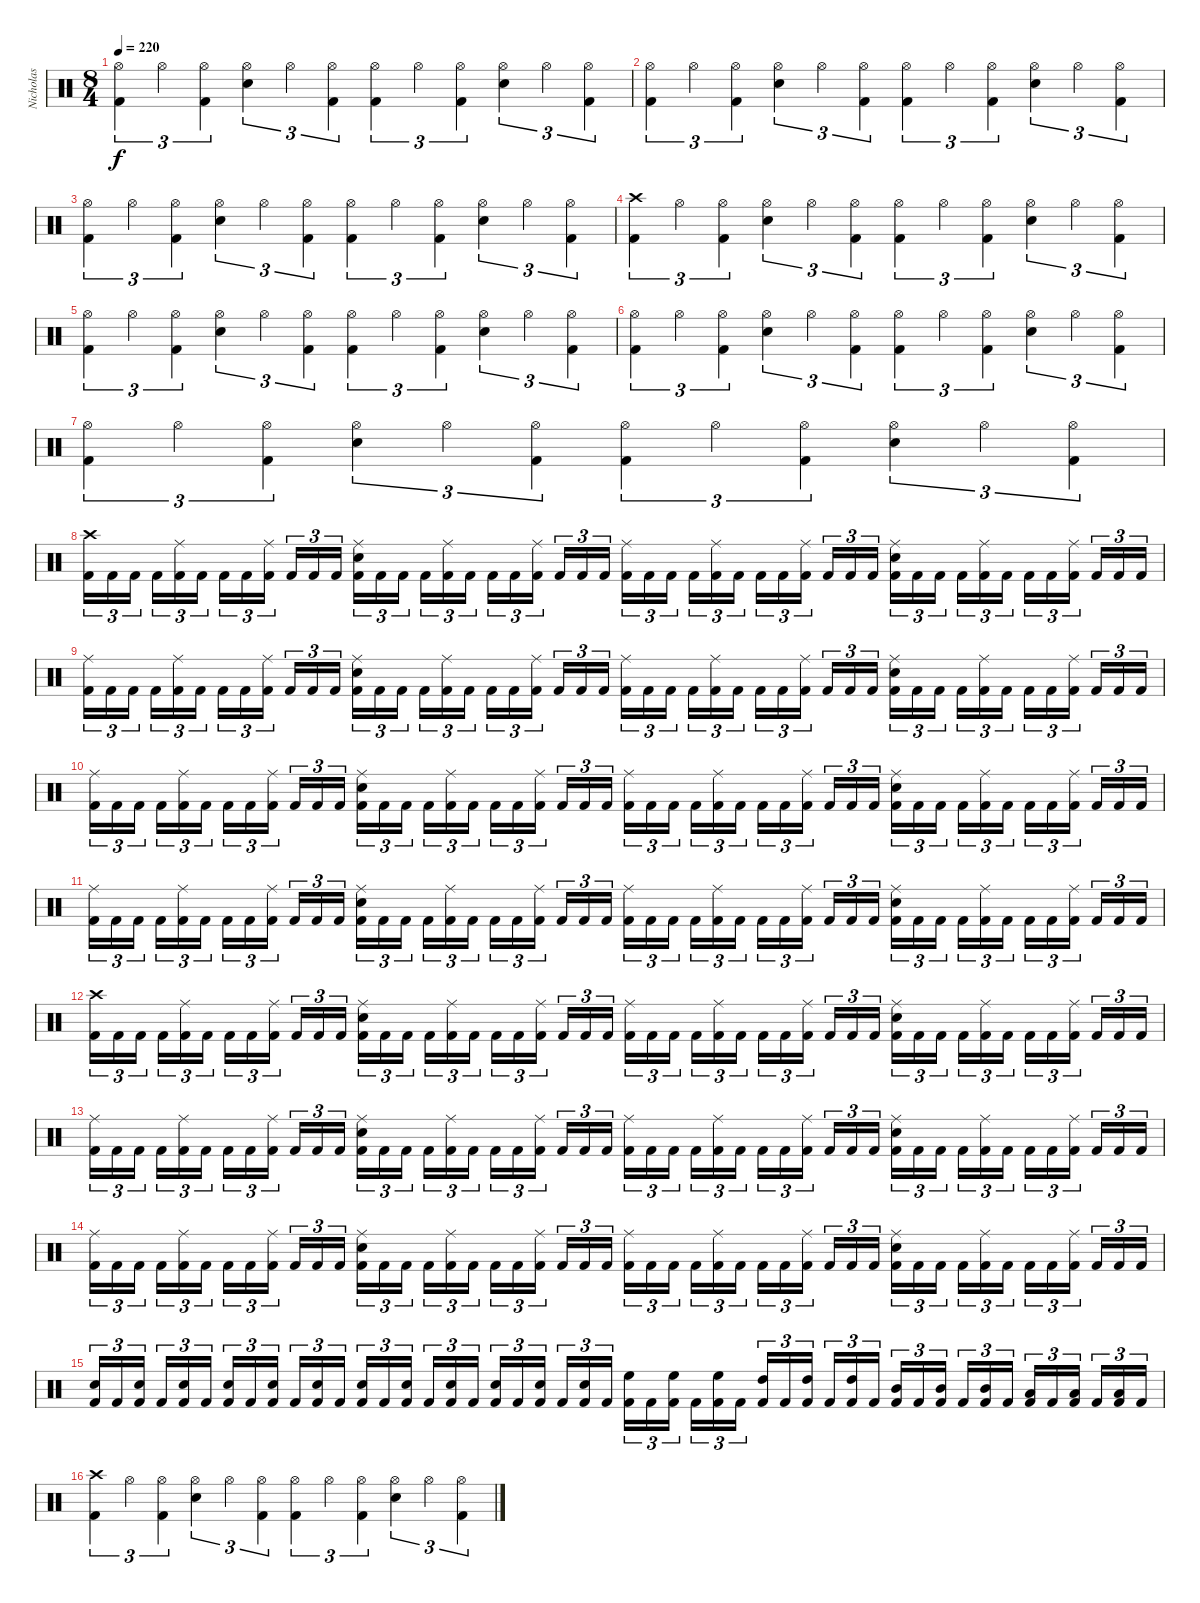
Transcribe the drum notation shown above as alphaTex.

\track ("Nicholas" "Nicholas") {instrument percussion}
\staff {score}
\articulation defaults
\ts (8 4)
\tempo 220
\clef neutral
\ks c
("Kick (hit) 2" "Hi-Hat (open)").4{tu (3 2) dy f} "Hi-Hat (open)".4{tu (3 2)} ("Kick (hit) 2" "Hi-Hat (open)").4{tu (3 2)} ("Snare (hit) 2" "Hi-Hat (open)").4{tu (3 2)} "Hi-Hat (open)".4{tu (3 2)} ("Kick (hit) 2" "Hi-Hat (open)").4{tu (3 2)} ("Kick (hit) 2" "Hi-Hat (open)").4{tu (3 2)} "Hi-Hat (open)".4{tu (3 2)} ("Kick (hit) 2" "Hi-Hat (open)").4{tu (3 2)} ("Snare (hit) 2" "Hi-Hat (open)").4{tu (3 2)} "Hi-Hat (open)".4{tu (3 2)} ("Kick (hit) 2" "Hi-Hat (open)").4{tu (3 2)} |
("Kick (hit) 2" "Hi-Hat (open)").4{tu (3 2)} "Hi-Hat (open)".4{tu (3 2)} ("Kick (hit) 2" "Hi-Hat (open)").4{tu (3 2)} ("Snare (hit) 2" "Hi-Hat (open)").4{tu (3 2)} "Hi-Hat (open)".4{tu (3 2)} ("Kick (hit) 2" "Hi-Hat (open)").4{tu (3 2)} ("Kick (hit) 2" "Hi-Hat (open)").4{tu (3 2)} "Hi-Hat (open)".4{tu (3 2)} ("Kick (hit) 2" "Hi-Hat (open)").4{tu (3 2)} ("Snare (hit) 2" "Hi-Hat (open)").4{tu (3 2)} "Hi-Hat (open)".4{tu (3 2)} ("Kick (hit) 2" "Hi-Hat (open)").4{tu (3 2)} |
("Kick (hit) 2" "Hi-Hat (open)").4{tu (3 2)} "Hi-Hat (open)".4{tu (3 2)} ("Kick (hit) 2" "Hi-Hat (open)").4{tu (3 2)} ("Snare (hit) 2" "Hi-Hat (open)").4{tu (3 2)} "Hi-Hat (open)".4{tu (3 2)} ("Kick (hit) 2" "Hi-Hat (open)").4{tu (3 2)} ("Kick (hit) 2" "Hi-Hat (open)").4{tu (3 2)} "Hi-Hat (open)".4{tu (3 2)} ("Kick (hit) 2" "Hi-Hat (open)").4{tu (3 2)} ("Snare (hit) 2" "Hi-Hat (open)").4{tu (3 2)} "Hi-Hat (open)".4{tu (3 2)} ("Kick (hit) 2" "Hi-Hat (open)").4{tu (3 2)} |
("Kick (hit) 2" "Crash high (hit)").4{tu (3 2)} "Hi-Hat (open)".4{tu (3 2)} ("Kick (hit) 2" "Hi-Hat (open)").4{tu (3 2)} ("Snare (hit) 2" "Hi-Hat (open)").4{tu (3 2)} "Hi-Hat (open)".4{tu (3 2)} ("Kick (hit) 2" "Hi-Hat (open)").4{tu (3 2)} ("Kick (hit) 2" "Hi-Hat (open)").4{tu (3 2)} "Hi-Hat (open)".4{tu (3 2)} ("Kick (hit) 2" "Hi-Hat (open)").4{tu (3 2)} ("Snare (hit) 2" "Hi-Hat (open)").4{tu (3 2)} "Hi-Hat (open)".4{tu (3 2)} ("Kick (hit) 2" "Hi-Hat (open)").4{tu (3 2)} |
("Kick (hit) 2" "Hi-Hat (open)").4{tu (3 2)} "Hi-Hat (open)".4{tu (3 2)} ("Kick (hit) 2" "Hi-Hat (open)").4{tu (3 2)} ("Snare (hit) 2" "Hi-Hat (open)").4{tu (3 2)} "Hi-Hat (open)".4{tu (3 2)} ("Kick (hit) 2" "Hi-Hat (open)").4{tu (3 2)} ("Kick (hit) 2" "Hi-Hat (open)").4{tu (3 2)} "Hi-Hat (open)".4{tu (3 2)} ("Kick (hit) 2" "Hi-Hat (open)").4{tu (3 2)} ("Snare (hit) 2" "Hi-Hat (open)").4{tu (3 2)} "Hi-Hat (open)".4{tu (3 2)} ("Kick (hit) 2" "Hi-Hat (open)").4{tu (3 2)} |
("Kick (hit) 2" "Hi-Hat (open)").4{tu (3 2)} "Hi-Hat (open)".4{tu (3 2)} ("Kick (hit) 2" "Hi-Hat (open)").4{tu (3 2)} ("Snare (hit) 2" "Hi-Hat (open)").4{tu (3 2)} "Hi-Hat (open)".4{tu (3 2)} ("Kick (hit) 2" "Hi-Hat (open)").4{tu (3 2)} ("Kick (hit) 2" "Hi-Hat (open)").4{tu (3 2)} "Hi-Hat (open)".4{tu (3 2)} ("Kick (hit) 2" "Hi-Hat (open)").4{tu (3 2)} ("Snare (hit) 2" "Hi-Hat (open)").4{tu (3 2)} "Hi-Hat (open)".4{tu (3 2)} ("Kick (hit) 2" "Hi-Hat (open)").4{tu (3 2)} |
("Kick (hit) 2" "Hi-Hat (open)").4{tu (3 2)} "Hi-Hat (open)".4{tu (3 2)} ("Kick (hit) 2" "Hi-Hat (open)").4{tu (3 2)} ("Snare (hit) 2" "Hi-Hat (open)").4{tu (3 2)} "Hi-Hat (open)".4{tu (3 2)} ("Kick (hit) 2" "Hi-Hat (open)").4{tu (3 2)} ("Kick (hit) 2" "Hi-Hat (open)").4{tu (3 2)} "Hi-Hat (open)".4{tu (3 2)} ("Kick (hit) 2" "Hi-Hat (open)").4{tu (3 2)} ("Snare (hit) 2" "Hi-Hat (open)").4{tu (3 2)} "Hi-Hat (open)".4{tu (3 2)} ("Kick (hit) 2" "Hi-Hat (open)").4{tu (3 2)} |
("Kick (hit) 2" "Crash high (hit)").16{tu (3 2)} "Kick (hit) 2".16{tu (3 2)} "Kick (hit) 2".16{tu (3 2)} "Kick (hit) 2".16{tu (3 2)} ("Kick (hit) 2" "Ride (middle)").16{tu (3 2)} "Kick (hit) 2".16{tu (3 2)} "Kick (hit) 2".16{tu (3 2)} "Kick (hit) 2".16{tu (3 2)} ("Kick (hit) 2" "Ride (middle)").16{tu (3 2)} "Kick (hit) 2".16{tu (3 2)} "Kick (hit) 2".16{tu (3 2)} "Kick (hit) 2".16{tu (3 2)} ("Kick (hit) 2" "Snare (hit) 2" "Ride (middle)").16{tu (3 2)} "Kick (hit) 2".16{tu (3 2)} "Kick (hit) 2".16{tu (3 2)} "Kick (hit) 2".16{tu (3 2)} ("Kick (hit) 2" "Ride (middle)").16{tu (3 2)} "Kick (hit) 2".16{tu (3 2)} "Kick (hit) 2".16{tu (3 2)} "Kick (hit) 2".16{tu (3 2)} ("Kick (hit) 2" "Ride (middle)").16{tu (3 2)} "Kick (hit) 2".16{tu (3 2)} "Kick (hit) 2".16{tu (3 2)} "Kick (hit) 2".16{tu (3 2)} ("Kick (hit) 2" "Ride (middle)").16{tu (3 2)} "Kick (hit) 2".16{tu (3 2)} "Kick (hit) 2".16{tu (3 2)} "Kick (hit) 2".16{tu (3 2)} ("Kick (hit) 2" "Ride (middle)").16{tu (3 2)} "Kick (hit) 2".16{tu (3 2)} "Kick (hit) 2".16{tu (3 2)} "Kick (hit) 2".16{tu (3 2)} ("Kick (hit) 2" "Ride (middle)").16{tu (3 2)} "Kick (hit) 2".16{tu (3 2)} "Kick (hit) 2".16{tu (3 2)} "Kick (hit) 2".16{tu (3 2)} ("Kick (hit) 2" "Snare (hit) 2" "Ride (middle)").16{tu (3 2)} "Kick (hit) 2".16{tu (3 2)} "Kick (hit) 2".16{tu (3 2)} "Kick (hit) 2".16{tu (3 2)} ("Kick (hit) 2" "Ride (middle)").16{tu (3 2)} "Kick (hit) 2".16{tu (3 2)} "Kick (hit) 2".16{tu (3 2)} "Kick (hit) 2".16{tu (3 2)} ("Kick (hit) 2" "Ride (middle)").16{tu (3 2)} "Kick (hit) 2".16{tu (3 2)} "Kick (hit) 2".16{tu (3 2)} "Kick (hit) 2".16{tu (3 2)} |
("Kick (hit) 2" "Ride (middle)").16{tu (3 2)} "Kick (hit) 2".16{tu (3 2)} "Kick (hit) 2".16{tu (3 2)} "Kick (hit) 2".16{tu (3 2)} ("Kick (hit) 2" "Ride (middle)").16{tu (3 2)} "Kick (hit) 2".16{tu (3 2)} "Kick (hit) 2".16{tu (3 2)} "Kick (hit) 2".16{tu (3 2)} ("Kick (hit) 2" "Ride (middle)").16{tu (3 2)} "Kick (hit) 2".16{tu (3 2)} "Kick (hit) 2".16{tu (3 2)} "Kick (hit) 2".16{tu (3 2)} ("Kick (hit) 2" "Snare (hit) 2" "Ride (middle)").16{tu (3 2)} "Kick (hit) 2".16{tu (3 2)} "Kick (hit) 2".16{tu (3 2)} "Kick (hit) 2".16{tu (3 2)} ("Kick (hit) 2" "Ride (middle)").16{tu (3 2)} "Kick (hit) 2".16{tu (3 2)} "Kick (hit) 2".16{tu (3 2)} "Kick (hit) 2".16{tu (3 2)} ("Kick (hit) 2" "Ride (middle)").16{tu (3 2)} "Kick (hit) 2".16{tu (3 2)} "Kick (hit) 2".16{tu (3 2)} "Kick (hit) 2".16{tu (3 2)} ("Kick (hit) 2" "Ride (middle)").16{tu (3 2)} "Kick (hit) 2".16{tu (3 2)} "Kick (hit) 2".16{tu (3 2)} "Kick (hit) 2".16{tu (3 2)} ("Kick (hit) 2" "Ride (middle)").16{tu (3 2)} "Kick (hit) 2".16{tu (3 2)} "Kick (hit) 2".16{tu (3 2)} "Kick (hit) 2".16{tu (3 2)} ("Kick (hit) 2" "Ride (middle)").16{tu (3 2)} "Kick (hit) 2".16{tu (3 2)} "Kick (hit) 2".16{tu (3 2)} "Kick (hit) 2".16{tu (3 2)} ("Kick (hit) 2" "Snare (hit) 2" "Ride (middle)").16{tu (3 2)} "Kick (hit) 2".16{tu (3 2)} "Kick (hit) 2".16{tu (3 2)} "Kick (hit) 2".16{tu (3 2)} ("Kick (hit) 2" "Ride (middle)").16{tu (3 2)} "Kick (hit) 2".16{tu (3 2)} "Kick (hit) 2".16{tu (3 2)} "Kick (hit) 2".16{tu (3 2)} ("Kick (hit) 2" "Ride (middle)").16{tu (3 2)} "Kick (hit) 2".16{tu (3 2)} "Kick (hit) 2".16{tu (3 2)} "Kick (hit) 2".16{tu (3 2)} |
("Kick (hit) 2" "Ride (middle)").16{tu (3 2)} "Kick (hit) 2".16{tu (3 2)} "Kick (hit) 2".16{tu (3 2)} "Kick (hit) 2".16{tu (3 2)} ("Kick (hit) 2" "Ride (middle)").16{tu (3 2)} "Kick (hit) 2".16{tu (3 2)} "Kick (hit) 2".16{tu (3 2)} "Kick (hit) 2".16{tu (3 2)} ("Kick (hit) 2" "Ride (middle)").16{tu (3 2)} "Kick (hit) 2".16{tu (3 2)} "Kick (hit) 2".16{tu (3 2)} "Kick (hit) 2".16{tu (3 2)} ("Kick (hit) 2" "Snare (hit) 2" "Ride (middle)").16{tu (3 2)} "Kick (hit) 2".16{tu (3 2)} "Kick (hit) 2".16{tu (3 2)} "Kick (hit) 2".16{tu (3 2)} ("Kick (hit) 2" "Ride (middle)").16{tu (3 2)} "Kick (hit) 2".16{tu (3 2)} "Kick (hit) 2".16{tu (3 2)} "Kick (hit) 2".16{tu (3 2)} ("Kick (hit) 2" "Ride (middle)").16{tu (3 2)} "Kick (hit) 2".16{tu (3 2)} "Kick (hit) 2".16{tu (3 2)} "Kick (hit) 2".16{tu (3 2)} ("Kick (hit) 2" "Ride (middle)").16{tu (3 2)} "Kick (hit) 2".16{tu (3 2)} "Kick (hit) 2".16{tu (3 2)} "Kick (hit) 2".16{tu (3 2)} ("Kick (hit) 2" "Ride (middle)").16{tu (3 2)} "Kick (hit) 2".16{tu (3 2)} "Kick (hit) 2".16{tu (3 2)} "Kick (hit) 2".16{tu (3 2)} ("Kick (hit) 2" "Ride (middle)").16{tu (3 2)} "Kick (hit) 2".16{tu (3 2)} "Kick (hit) 2".16{tu (3 2)} "Kick (hit) 2".16{tu (3 2)} ("Kick (hit) 2" "Snare (hit) 2" "Ride (middle)").16{tu (3 2)} "Kick (hit) 2".16{tu (3 2)} "Kick (hit) 2".16{tu (3 2)} "Kick (hit) 2".16{tu (3 2)} ("Kick (hit) 2" "Ride (middle)").16{tu (3 2)} "Kick (hit) 2".16{tu (3 2)} "Kick (hit) 2".16{tu (3 2)} "Kick (hit) 2".16{tu (3 2)} ("Kick (hit) 2" "Ride (middle)").16{tu (3 2)} "Kick (hit) 2".16{tu (3 2)} "Kick (hit) 2".16{tu (3 2)} "Kick (hit) 2".16{tu (3 2)} |
("Kick (hit) 2" "Ride (middle)").16{tu (3 2)} "Kick (hit) 2".16{tu (3 2)} "Kick (hit) 2".16{tu (3 2)} "Kick (hit) 2".16{tu (3 2)} ("Kick (hit) 2" "Ride (middle)").16{tu (3 2)} "Kick (hit) 2".16{tu (3 2)} "Kick (hit) 2".16{tu (3 2)} "Kick (hit) 2".16{tu (3 2)} ("Kick (hit) 2" "Ride (middle)").16{tu (3 2)} "Kick (hit) 2".16{tu (3 2)} "Kick (hit) 2".16{tu (3 2)} "Kick (hit) 2".16{tu (3 2)} ("Kick (hit) 2" "Snare (hit) 2" "Ride (middle)").16{tu (3 2)} "Kick (hit) 2".16{tu (3 2)} "Kick (hit) 2".16{tu (3 2)} "Kick (hit) 2".16{tu (3 2)} ("Kick (hit) 2" "Ride (middle)").16{tu (3 2)} "Kick (hit) 2".16{tu (3 2)} "Kick (hit) 2".16{tu (3 2)} "Kick (hit) 2".16{tu (3 2)} ("Kick (hit) 2" "Ride (middle)").16{tu (3 2)} "Kick (hit) 2".16{tu (3 2)} "Kick (hit) 2".16{tu (3 2)} "Kick (hit) 2".16{tu (3 2)} ("Kick (hit) 2" "Ride (middle)").16{tu (3 2)} "Kick (hit) 2".16{tu (3 2)} "Kick (hit) 2".16{tu (3 2)} "Kick (hit) 2".16{tu (3 2)} ("Kick (hit) 2" "Ride (middle)").16{tu (3 2)} "Kick (hit) 2".16{tu (3 2)} "Kick (hit) 2".16{tu (3 2)} "Kick (hit) 2".16{tu (3 2)} ("Kick (hit) 2" "Ride (middle)").16{tu (3 2)} "Kick (hit) 2".16{tu (3 2)} "Kick (hit) 2".16{tu (3 2)} "Kick (hit) 2".16{tu (3 2)} ("Kick (hit) 2" "Snare (hit) 2" "Ride (middle)").16{tu (3 2)} "Kick (hit) 2".16{tu (3 2)} "Kick (hit) 2".16{tu (3 2)} "Kick (hit) 2".16{tu (3 2)} ("Kick (hit) 2" "Ride (middle)").16{tu (3 2)} "Kick (hit) 2".16{tu (3 2)} "Kick (hit) 2".16{tu (3 2)} "Kick (hit) 2".16{tu (3 2)} ("Kick (hit) 2" "Ride (middle)").16{tu (3 2)} "Kick (hit) 2".16{tu (3 2)} "Kick (hit) 2".16{tu (3 2)} "Kick (hit) 2".16{tu (3 2)} |
("Kick (hit) 2" "Crash high (hit)").16{tu (3 2)} "Kick (hit) 2".16{tu (3 2)} "Kick (hit) 2".16{tu (3 2)} "Kick (hit) 2".16{tu (3 2)} ("Kick (hit) 2" "Ride (middle)").16{tu (3 2)} "Kick (hit) 2".16{tu (3 2)} "Kick (hit) 2".16{tu (3 2)} "Kick (hit) 2".16{tu (3 2)} ("Kick (hit) 2" "Ride (middle)").16{tu (3 2)} "Kick (hit) 2".16{tu (3 2)} "Kick (hit) 2".16{tu (3 2)} "Kick (hit) 2".16{tu (3 2)} ("Kick (hit) 2" "Snare (hit) 2" "Ride (middle)").16{tu (3 2)} "Kick (hit) 2".16{tu (3 2)} "Kick (hit) 2".16{tu (3 2)} "Kick (hit) 2".16{tu (3 2)} ("Kick (hit) 2" "Ride (middle)").16{tu (3 2)} "Kick (hit) 2".16{tu (3 2)} "Kick (hit) 2".16{tu (3 2)} "Kick (hit) 2".16{tu (3 2)} ("Kick (hit) 2" "Ride (middle)").16{tu (3 2)} "Kick (hit) 2".16{tu (3 2)} "Kick (hit) 2".16{tu (3 2)} "Kick (hit) 2".16{tu (3 2)} ("Kick (hit) 2" "Ride (middle)").16{tu (3 2)} "Kick (hit) 2".16{tu (3 2)} "Kick (hit) 2".16{tu (3 2)} "Kick (hit) 2".16{tu (3 2)} ("Kick (hit) 2" "Ride (middle)").16{tu (3 2)} "Kick (hit) 2".16{tu (3 2)} "Kick (hit) 2".16{tu (3 2)} "Kick (hit) 2".16{tu (3 2)} ("Kick (hit) 2" "Ride (middle)").16{tu (3 2)} "Kick (hit) 2".16{tu (3 2)} "Kick (hit) 2".16{tu (3 2)} "Kick (hit) 2".16{tu (3 2)} ("Kick (hit) 2" "Snare (hit) 2" "Ride (middle)").16{tu (3 2)} "Kick (hit) 2".16{tu (3 2)} "Kick (hit) 2".16{tu (3 2)} "Kick (hit) 2".16{tu (3 2)} ("Kick (hit) 2" "Ride (middle)").16{tu (3 2)} "Kick (hit) 2".16{tu (3 2)} "Kick (hit) 2".16{tu (3 2)} "Kick (hit) 2".16{tu (3 2)} ("Kick (hit) 2" "Ride (middle)").16{tu (3 2)} "Kick (hit) 2".16{tu (3 2)} "Kick (hit) 2".16{tu (3 2)} "Kick (hit) 2".16{tu (3 2)} |
("Kick (hit) 2" "Ride (middle)").16{tu (3 2)} "Kick (hit) 2".16{tu (3 2)} "Kick (hit) 2".16{tu (3 2)} "Kick (hit) 2".16{tu (3 2)} ("Kick (hit) 2" "Ride (middle)").16{tu (3 2)} "Kick (hit) 2".16{tu (3 2)} "Kick (hit) 2".16{tu (3 2)} "Kick (hit) 2".16{tu (3 2)} ("Kick (hit) 2" "Ride (middle)").16{tu (3 2)} "Kick (hit) 2".16{tu (3 2)} "Kick (hit) 2".16{tu (3 2)} "Kick (hit) 2".16{tu (3 2)} ("Kick (hit) 2" "Snare (hit) 2" "Ride (middle)").16{tu (3 2)} "Kick (hit) 2".16{tu (3 2)} "Kick (hit) 2".16{tu (3 2)} "Kick (hit) 2".16{tu (3 2)} ("Kick (hit) 2" "Ride (middle)").16{tu (3 2)} "Kick (hit) 2".16{tu (3 2)} "Kick (hit) 2".16{tu (3 2)} "Kick (hit) 2".16{tu (3 2)} ("Kick (hit) 2" "Ride (middle)").16{tu (3 2)} "Kick (hit) 2".16{tu (3 2)} "Kick (hit) 2".16{tu (3 2)} "Kick (hit) 2".16{tu (3 2)} ("Kick (hit) 2" "Ride (middle)").16{tu (3 2)} "Kick (hit) 2".16{tu (3 2)} "Kick (hit) 2".16{tu (3 2)} "Kick (hit) 2".16{tu (3 2)} ("Kick (hit) 2" "Ride (middle)").16{tu (3 2)} "Kick (hit) 2".16{tu (3 2)} "Kick (hit) 2".16{tu (3 2)} "Kick (hit) 2".16{tu (3 2)} ("Kick (hit) 2" "Ride (middle)").16{tu (3 2)} "Kick (hit) 2".16{tu (3 2)} "Kick (hit) 2".16{tu (3 2)} "Kick (hit) 2".16{tu (3 2)} ("Kick (hit) 2" "Snare (hit) 2" "Ride (middle)").16{tu (3 2)} "Kick (hit) 2".16{tu (3 2)} "Kick (hit) 2".16{tu (3 2)} "Kick (hit) 2".16{tu (3 2)} ("Kick (hit) 2" "Ride (middle)").16{tu (3 2)} "Kick (hit) 2".16{tu (3 2)} "Kick (hit) 2".16{tu (3 2)} "Kick (hit) 2".16{tu (3 2)} ("Kick (hit) 2" "Ride (middle)").16{tu (3 2)} "Kick (hit) 2".16{tu (3 2)} "Kick (hit) 2".16{tu (3 2)} "Kick (hit) 2".16{tu (3 2)} |
("Kick (hit) 2" "Ride (middle)").16{tu (3 2)} "Kick (hit) 2".16{tu (3 2)} "Kick (hit) 2".16{tu (3 2)} "Kick (hit) 2".16{tu (3 2)} ("Kick (hit) 2" "Ride (middle)").16{tu (3 2)} "Kick (hit) 2".16{tu (3 2)} "Kick (hit) 2".16{tu (3 2)} "Kick (hit) 2".16{tu (3 2)} ("Kick (hit) 2" "Ride (middle)").16{tu (3 2)} "Kick (hit) 2".16{tu (3 2)} "Kick (hit) 2".16{tu (3 2)} "Kick (hit) 2".16{tu (3 2)} ("Kick (hit) 2" "Snare (hit) 2" "Ride (middle)").16{tu (3 2)} "Kick (hit) 2".16{tu (3 2)} "Kick (hit) 2".16{tu (3 2)} "Kick (hit) 2".16{tu (3 2)} ("Kick (hit) 2" "Ride (middle)").16{tu (3 2)} "Kick (hit) 2".16{tu (3 2)} "Kick (hit) 2".16{tu (3 2)} "Kick (hit) 2".16{tu (3 2)} ("Kick (hit) 2" "Ride (middle)").16{tu (3 2)} "Kick (hit) 2".16{tu (3 2)} "Kick (hit) 2".16{tu (3 2)} "Kick (hit) 2".16{tu (3 2)} ("Kick (hit) 2" "Ride (middle)").16{tu (3 2)} "Kick (hit) 2".16{tu (3 2)} "Kick (hit) 2".16{tu (3 2)} "Kick (hit) 2".16{tu (3 2)} ("Kick (hit) 2" "Ride (middle)").16{tu (3 2)} "Kick (hit) 2".16{tu (3 2)} "Kick (hit) 2".16{tu (3 2)} "Kick (hit) 2".16{tu (3 2)} ("Kick (hit) 2" "Ride (middle)").16{tu (3 2)} "Kick (hit) 2".16{tu (3 2)} "Kick (hit) 2".16{tu (3 2)} "Kick (hit) 2".16{tu (3 2)} ("Kick (hit) 2" "Snare (hit) 2" "Ride (middle)").16{tu (3 2)} "Kick (hit) 2".16{tu (3 2)} "Kick (hit) 2".16{tu (3 2)} "Kick (hit) 2".16{tu (3 2)} ("Kick (hit) 2" "Ride (middle)").16{tu (3 2)} "Kick (hit) 2".16{tu (3 2)} "Kick (hit) 2".16{tu (3 2)} "Kick (hit) 2".16{tu (3 2)} ("Kick (hit) 2" "Ride (middle)").16{tu (3 2)} "Kick (hit) 2".16{tu (3 2)} "Kick (hit) 2".16{tu (3 2)} "Kick (hit) 2".16{tu (3 2)} |
("Kick (hit) 2" "Snare (hit) 2").16{tu (3 2)} "Kick (hit) 2".16{tu (3 2)} ("Kick (hit) 2" "Snare (hit) 2").16{tu (3 2)} "Kick (hit) 2".16{tu (3 2)} ("Kick (hit) 2" "Snare (hit) 2").16{tu (3 2)} "Kick (hit) 2".16{tu (3 2)} ("Kick (hit) 2" "Snare (hit) 2").16{tu (3 2)} "Kick (hit) 2".16{tu (3 2)} ("Kick (hit) 2" "Snare (hit) 2").16{tu (3 2)} "Kick (hit) 2".16{tu (3 2)} ("Kick (hit) 2" "Snare (hit) 2").16{tu (3 2)} "Kick (hit) 2".16{tu (3 2)} ("Kick (hit) 2" "Snare (hit) 2").16{tu (3 2)} "Kick (hit) 2".16{tu (3 2)} ("Kick (hit) 2" "Snare (hit) 2").16{tu (3 2)} "Kick (hit) 2".16{tu (3 2)} ("Kick (hit) 2" "Snare (hit) 2").16{tu (3 2)} "Kick (hit) 2".16{tu (3 2)} ("Kick (hit) 2" "Snare (hit) 2").16{tu (3 2)} "Kick (hit) 2".16{tu (3 2)} ("Kick (hit) 2" "Snare (hit) 2").16{tu (3 2)} "Kick (hit) 2".16{tu (3 2)} ("Kick (hit) 2" "Snare (hit) 2").16{tu (3 2)} "Kick (hit) 2".16{tu (3 2)} ("Kick (hit) 2" "High Floor Tom (hit)").16{tu (3 2)} "Kick (hit) 2".16{tu (3 2)} ("Kick (hit) 2" "High Floor Tom (hit)").16{tu (3 2)} "Kick (hit) 2".16{tu (3 2)} ("Kick (hit) 2" "High Floor Tom (hit)").16{tu (3 2)} "Kick (hit) 2".16{tu (3 2)} ("Kick (hit) 2" "High Tom (hit)").16{tu (3 2)} "Kick (hit) 2".16{tu (3 2)} ("Kick (hit) 2" "High Tom (hit)").16{tu (3 2)} "Kick (hit) 2".16{tu (3 2)} ("Kick (hit) 2" "High Tom (hit)").16{tu (3 2)} "Kick (hit) 2".16{tu (3 2)} ("Kick (hit) 2" "Mid Tom (hit)").16{tu (3 2)} "Kick (hit) 2".16{tu (3 2)} ("Kick (hit) 2" "Mid Tom (hit)").16{tu (3 2)} "Kick (hit) 2".16{tu (3 2)} ("Kick (hit) 2" "Mid Tom (hit)").16{tu (3 2)} "Kick (hit) 2".16{tu (3 2)} ("Kick (hit) 2" "Low Tom (hit)").16{tu (3 2)} "Kick (hit) 2".16{tu (3 2)} ("Kick (hit) 2" "Low Tom (hit)").16{tu (3 2)} "Kick (hit) 2".16{tu (3 2)} ("Kick (hit) 2" "Low Tom (hit)").16{tu (3 2)} "Kick (hit) 2".16{tu (3 2)} |
("Kick (hit) 2" "Crash high (hit)").4{tu (3 2)} "Hi-Hat (open)".4{tu (3 2)} ("Kick (hit) 2" "Hi-Hat (open)").4{tu (3 2)} ("Snare (hit) 2" "Hi-Hat (open)").4{tu (3 2)} "Hi-Hat (open)".4{tu (3 2)} ("Kick (hit) 2" "Hi-Hat (open)").4{tu (3 2)} ("Kick (hit) 2" "Hi-Hat (open)").4{tu (3 2)} "Hi-Hat (open)".4{tu (3 2)} ("Kick (hit) 2" "Hi-Hat (open)").4{tu (3 2)} ("Snare (hit) 2" "Hi-Hat (open)").4{tu (3 2)} "Hi-Hat (open)".4{tu (3 2)} ("Kick (hit) 2" "Hi-Hat (open)").4{tu (3 2)}
